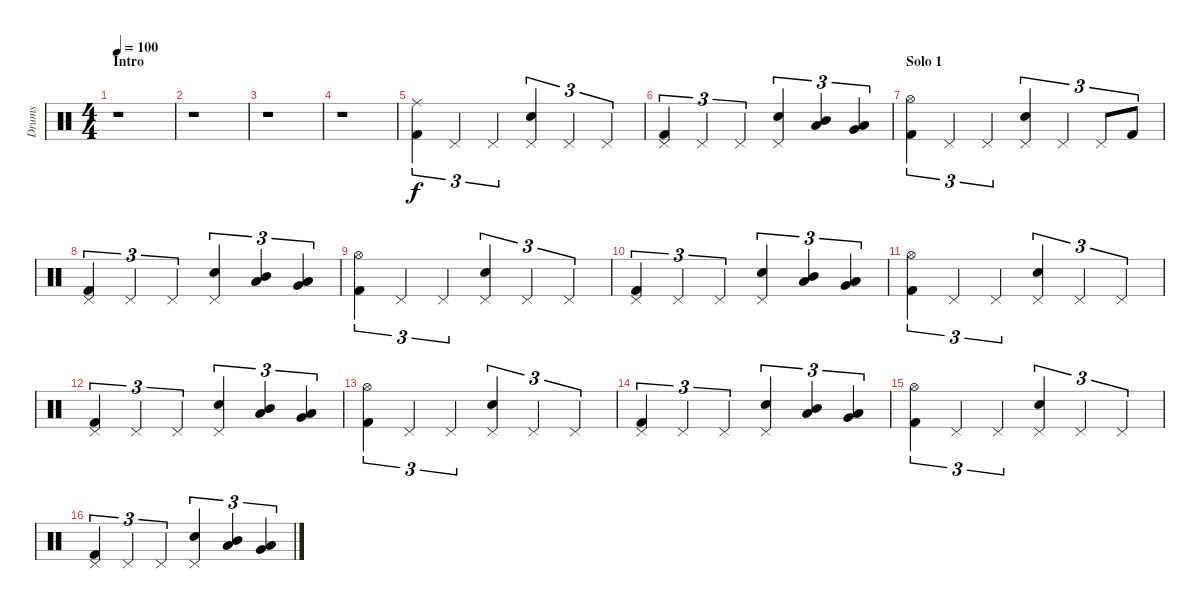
\track ("Drums" "Drums") {instrument percussion}
\staff {score}
\articulation defaults
\ts (4 4)
\section ("" "Intro")
\tempo 100
\clef neutral
\ks c
r.1{dy f} |
r.1 |
r.1 |
r.1 |
("Ride (middle)" "Kick (hit) 2").4{tu (3 2)} "Pedal Hi-Hat (hit)".4{tu (3 2)} "Pedal Hi-Hat (hit)".4{tu (3 2)} ("Pedal Hi-Hat (hit)" "Electric Snare (hit)").4{tu (3 2)} "Pedal Hi-Hat (hit)".4{tu (3 2)} "Pedal Hi-Hat (hit)".4{tu (3 2)} |
("Pedal Hi-Hat (hit)" "Kick (hit) 2").4{tu (3 2)} "Pedal Hi-Hat (hit)".4{tu (3 2)} "Pedal Hi-Hat (hit)".4{tu (3 2)} ("Pedal Hi-Hat (hit)" "Electric Snare (hit)").4{tu (3 2)} ("Low Tom (hit)" "Mid Tom (hit)").4{tu (3 2)} ("Very Low Tom (hit)" "Low Tom (hit)").4{tu (3 2)} |
\section ("" "Solo 1")
("Hi-Hat (open)" "Kick (hit) 2").4{tu (3 2)} "Pedal Hi-Hat (hit)".4{tu (3 2)} "Pedal Hi-Hat (hit)".4{tu (3 2)} ("Pedal Hi-Hat (hit)" "Electric Snare (hit)").4{tu (3 2)} "Pedal Hi-Hat (hit)".4{tu (3 2)} "Pedal Hi-Hat (hit)".8{tu (3 2)} "Kick (hit) 2".8{tu (3 2)} |
("Pedal Hi-Hat (hit)" "Kick (hit) 2").4{tu (3 2)} "Pedal Hi-Hat (hit)".4{tu (3 2)} "Pedal Hi-Hat (hit)".4{tu (3 2)} ("Pedal Hi-Hat (hit)" "Electric Snare (hit)").4{tu (3 2)} ("Low Tom (hit)" "Mid Tom (hit)").4{tu (3 2)} ("Very Low Tom (hit)" "Low Tom (hit)").4{tu (3 2)} |
("Hi-Hat (open)" "Kick (hit) 2").4{tu (3 2)} "Pedal Hi-Hat (hit)".4{tu (3 2)} "Pedal Hi-Hat (hit)".4{tu (3 2)} ("Pedal Hi-Hat (hit)" "Electric Snare (hit)").4{tu (3 2)} "Pedal Hi-Hat (hit)".4{tu (3 2)} "Pedal Hi-Hat (hit)".4{tu (3 2)} |
("Pedal Hi-Hat (hit)" "Kick (hit) 2").4{tu (3 2)} "Pedal Hi-Hat (hit)".4{tu (3 2)} "Pedal Hi-Hat (hit)".4{tu (3 2)} ("Pedal Hi-Hat (hit)" "Electric Snare (hit)").4{tu (3 2)} ("Low Tom (hit)" "Mid Tom (hit)").4{tu (3 2)} ("Very Low Tom (hit)" "Low Tom (hit)").4{tu (3 2)} |
("Hi-Hat (open)" "Kick (hit) 2").4{tu (3 2)} "Pedal Hi-Hat (hit)".4{tu (3 2)} "Pedal Hi-Hat (hit)".4{tu (3 2)} ("Pedal Hi-Hat (hit)" "Electric Snare (hit)").4{tu (3 2)} "Pedal Hi-Hat (hit)".4{tu (3 2)} "Pedal Hi-Hat (hit)".4{tu (3 2)} |
("Pedal Hi-Hat (hit)" "Kick (hit) 2").4{tu (3 2)} "Pedal Hi-Hat (hit)".4{tu (3 2)} "Pedal Hi-Hat (hit)".4{tu (3 2)} ("Pedal Hi-Hat (hit)" "Electric Snare (hit)").4{tu (3 2)} ("Low Tom (hit)" "Mid Tom (hit)").4{tu (3 2)} ("Very Low Tom (hit)" "Low Tom (hit)").4{tu (3 2)} |
("Hi-Hat (open)" "Kick (hit) 2").4{tu (3 2)} "Pedal Hi-Hat (hit)".4{tu (3 2)} "Pedal Hi-Hat (hit)".4{tu (3 2)} ("Pedal Hi-Hat (hit)" "Electric Snare (hit)").4{tu (3 2)} "Pedal Hi-Hat (hit)".4{tu (3 2)} "Pedal Hi-Hat (hit)".4{tu (3 2)} |
("Pedal Hi-Hat (hit)" "Kick (hit) 2").4{tu (3 2)} "Pedal Hi-Hat (hit)".4{tu (3 2)} "Pedal Hi-Hat (hit)".4{tu (3 2)} ("Pedal Hi-Hat (hit)" "Electric Snare (hit)").4{tu (3 2)} ("Low Tom (hit)" "Mid Tom (hit)").4{tu (3 2)} ("Very Low Tom (hit)" "Low Tom (hit)").4{tu (3 2)} |
("Hi-Hat (open)" "Kick (hit) 2").4{tu (3 2)} "Pedal Hi-Hat (hit)".4{tu (3 2)} "Pedal Hi-Hat (hit)".4{tu (3 2)} ("Pedal Hi-Hat (hit)" "Electric Snare (hit)").4{tu (3 2)} "Pedal Hi-Hat (hit)".4{tu (3 2)} "Pedal Hi-Hat (hit)".4{tu (3 2)} |
("Pedal Hi-Hat (hit)" "Kick (hit) 2").4{tu (3 2)} "Pedal Hi-Hat (hit)".4{tu (3 2)} "Pedal Hi-Hat (hit)".4{tu (3 2)} ("Pedal Hi-Hat (hit)" "Electric Snare (hit)").4{tu (3 2)} ("Low Tom (hit)" "Mid Tom (hit)").4{tu (3 2)} ("Very Low Tom (hit)" "Low Tom (hit)").4{tu (3 2)}
